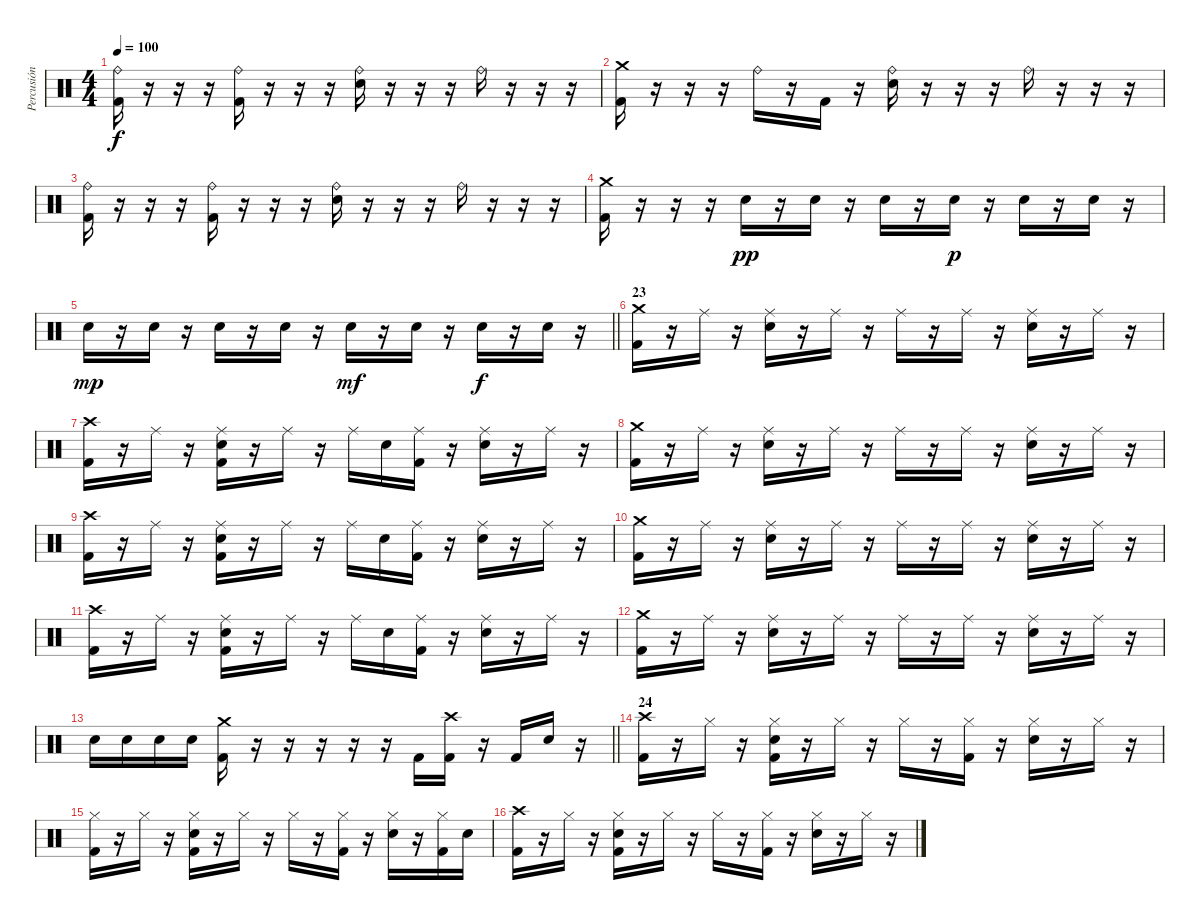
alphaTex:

\track ("Percusión" "Percusión") {instrument percussion}
\staff {score}
\articulation defaults
\ts (4 4)
\tempo 100
\clef neutral
\ks c
("Ride (bell)" "Kick (hit) 2").16{dy f} r.16 r.16 r.16 ("Ride (bell)" "Kick (hit) 2").16 r.16 r.16 r.16 ("Ride (bell)" "Electric Snare (hit)").16 r.16 r.16 r.16 "Ride (bell)".16 r.16 r.16 r.16 |
("Crash medium (hit)" "Kick (hit) 2").16 r.16 r.16 r.16 "Ride (bell)".16 r.16 "Kick (hit) 2".16 r.16 ("Ride (bell)" "Electric Snare (hit)").16 r.16 r.16 r.16 "Ride (bell)".16 r.16 r.16 r.16 |
("Ride (bell)" "Kick (hit) 2").16 r.16 r.16 r.16 ("Ride (bell)" "Kick (hit) 2").16 r.16 r.16 r.16 ("Ride (bell)" "Electric Snare (hit)").16 r.16 r.16 r.16 "Ride (bell)".16 r.16 r.16 r.16 |
("Crash medium (hit)" "Kick (hit) 2").16 r.16 r.16 r.16 "Electric Snare (hit)".16{dy pp} r.16 "Electric Snare (hit)".16 r.16 "Electric Snare (hit)".16 r.16 "Electric Snare (hit)".16{dy p} r.16 "Electric Snare (hit)".16 r.16 "Electric Snare (hit)".16 r.16 |
\barLineRight lightlight "Electric Snare (hit)".16{dy mp}
r.16 "Electric Snare (hit)".16 r.16 "Electric Snare (hit)".16 r.16 "Electric Snare (hit)".16 r.16 "Electric Snare (hit)".16{dy mf} r.16 "Electric Snare (hit)".16 r.16 "Electric Snare (hit)".16{dy f} r.16 "Electric Snare (hit)".16 r.16 |
\section ("" "23")
("Crash medium (hit)" "Kick (hit) 2").16 r.16 "Ride (middle)".16 r.16 ("Ride (middle)" "Electric Snare (hit)").16 r.16 "Ride (middle)".16 r.16 "Ride (middle)".16 r.16 "Ride (middle)".16 r.16 ("Ride (middle)" "Electric Snare (hit)").16 r.16 "Ride (middle)".16 r.16 |
("Crash high (hit)" "Kick (hit) 2").16 r.16 "Ride (middle)".16 r.16 ("Ride (middle)" "Electric Snare (hit)" "Kick (hit) 2").16 r.16 "Ride (middle)".16 r.16 "Ride (middle)".16 "Electric Snare (hit)".16 ("Ride (middle)" "Kick (hit) 2").16 r.16 ("Ride (middle)" "Electric Snare (hit)").16 r.16 "Ride (middle)".16 r.16 |
("Crash medium (hit)" "Kick (hit) 2").16 r.16 "Ride (middle)".16 r.16 ("Ride (middle)" "Electric Snare (hit)").16 r.16 "Ride (middle)".16 r.16 "Ride (middle)".16 r.16 "Ride (middle)".16 r.16 ("Ride (middle)" "Electric Snare (hit)").16 r.16 "Ride (middle)".16 r.16 |
("Crash high (hit)" "Kick (hit) 2").16 r.16 "Ride (middle)".16 r.16 ("Ride (middle)" "Electric Snare (hit)" "Kick (hit) 2").16 r.16 "Ride (middle)".16 r.16 "Ride (middle)".16 "Electric Snare (hit)".16 ("Ride (middle)" "Kick (hit) 2").16 r.16 ("Ride (middle)" "Electric Snare (hit)").16 r.16 "Ride (middle)".16 r.16 |
("Crash medium (hit)" "Kick (hit) 2").16 r.16 "Ride (middle)".16 r.16 ("Ride (middle)" "Electric Snare (hit)").16 r.16 "Ride (middle)".16 r.16 "Ride (middle)".16 r.16 "Ride (middle)".16 r.16 ("Ride (middle)" "Electric Snare (hit)").16 r.16 "Ride (middle)".16 r.16 |
("Crash high (hit)" "Kick (hit) 2").16 r.16 "Ride (middle)".16 r.16 ("Ride (middle)" "Electric Snare (hit)" "Kick (hit) 2").16 r.16 "Ride (middle)".16 r.16 "Ride (middle)".16 "Electric Snare (hit)".16 ("Ride (middle)" "Kick (hit) 2").16 r.16 ("Ride (middle)" "Electric Snare (hit)").16 r.16 "Ride (middle)".16 r.16 |
("Crash medium (hit)" "Kick (hit) 2").16 r.16 "Ride (middle)".16 r.16 ("Ride (middle)" "Electric Snare (hit)").16 r.16 "Ride (middle)".16 r.16 "Ride (middle)".16 r.16 "Ride (middle)".16 r.16 ("Ride (middle)" "Electric Snare (hit)").16 r.16 "Ride (middle)".16 r.16 |
\barLineRight lightlight "Electric Snare (hit)".16 "Electric Snare (hit)".16 "Electric Snare (hit)".16 "Electric Snare (hit)".16
("Crash medium (hit)" "Kick (hit) 2").16 r.16 r.16 r.16 r.16 r.16 "Kick (hit) 2".16 ("Crash high (hit)" "Kick (hit) 2").16 r.16 "Kick (hit) 2".16 "Electric Snare (hit)".16 r.16 |
\section ("" "24")
("Crash high (hit)" "Kick (hit) 2").16 r.16 "Hi-Hat (closed)".16 r.16 ("Hi-Hat (closed)" "Electric Snare (hit)" "Kick (hit) 2").16 r.16 "Hi-Hat (closed)".16 r.16 "Hi-Hat (closed)".16 r.16 ("Hi-Hat (closed)" "Kick (hit) 2").16 r.16 ("Hi-Hat (closed)" "Electric Snare (hit)").16 r.16 "Hi-Hat (closed)".16 r.16 |
("Hi-Hat (closed)" "Kick (hit) 2").16 r.16 "Hi-Hat (closed)".16 r.16 ("Hi-Hat (closed)" "Electric Snare (hit)" "Kick (hit) 2").16 r.16 "Hi-Hat (closed)".16 r.16 "Hi-Hat (closed)".16 r.16 ("Hi-Hat (closed)" "Kick (hit) 2").16 r.16 ("Hi-Hat (closed)" "Electric Snare (hit)").16 r.16 ("Hi-Hat (closed)" "Kick (hit) 2").16 "Electric Snare (hit)".16 |
("Crash high (hit)" "Kick (hit) 2").16 r.16 "Hi-Hat (closed)".16 r.16 ("Hi-Hat (closed)" "Electric Snare (hit)" "Kick (hit) 2").16 r.16 "Hi-Hat (closed)".16 r.16 "Hi-Hat (closed)".16 r.16 ("Hi-Hat (closed)" "Kick (hit) 2").16 r.16 ("Hi-Hat (closed)" "Electric Snare (hit)").16 r.16 "Hi-Hat (closed)".16 r.16
